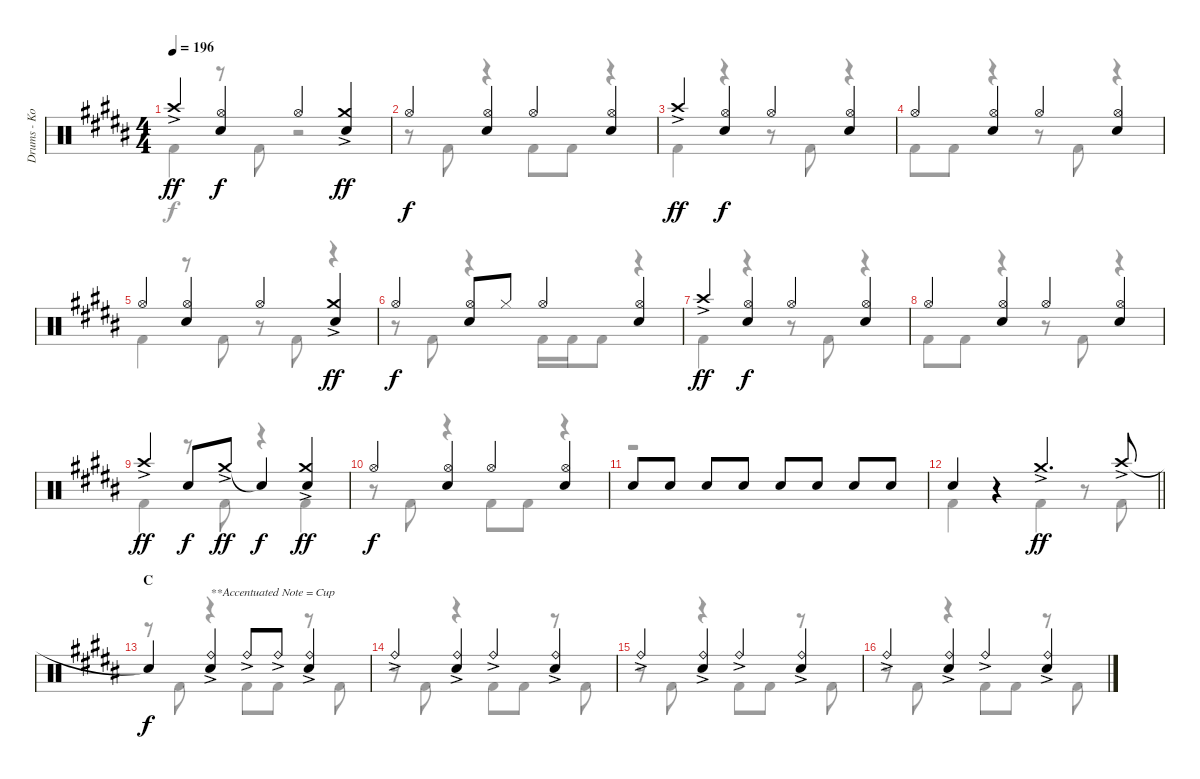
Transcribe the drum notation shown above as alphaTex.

\track ("Drums - Koji Hasegawa" "Drums - Ko") {instrument percussion}
\staff {score}
\articulation defaults
\voice
\ts (4 4)
\tempo 196
\clef neutral
\ks b "Crash high (hit)"{ac}.4{dy ff}
("Hi-Hat (open)" "Snare (hit) 2").4{dy f} "Hi-Hat (open)".4 ("Crash medium (hit)"{ac} "Snare (hit) 2").4{dy ff} |
"Hi-Hat (open)".4{dy f} ("Hi-Hat (open)" "Snare (hit) 2").4 "Hi-Hat (open)".4 ("Hi-Hat (open)" "Snare (hit) 2").4 |
"Crash high (hit)"{ac}.4{dy ff} ("Hi-Hat (open)" "Snare (hit) 2").4{dy f} "Hi-Hat (open)".4 ("Hi-Hat (open)" "Snare (hit) 2").4 |
"Hi-Hat (open)".4 ("Hi-Hat (open)" "Snare (hit) 2").4 "Hi-Hat (open)".4 ("Hi-Hat (open)" "Snare (hit) 2").4 |
"Hi-Hat (open)".4 ("Hi-Hat (open)" "Snare (hit) 2").4 "Hi-Hat (open)".4 ("Crash medium (hit)"{ac} "Snare (hit) 2").4{dy ff} |
"Hi-Hat (open)".4{dy f} ("Hi-Hat (open)" "Snare (hit) 2").8 "Hi-Hat (closed)".8 "Hi-Hat (open)".4 ("Hi-Hat (open)" "Snare (hit) 2").4 |
"Crash high (hit)"{ac}.4{dy ff} ("Hi-Hat (open)" "Snare (hit) 2").4{dy f} "Hi-Hat (open)".4 ("Hi-Hat (open)" "Snare (hit) 2").4 |
"Hi-Hat (open)".4 ("Hi-Hat (open)" "Snare (hit) 2").4 "Hi-Hat (open)".4 ("Hi-Hat (open)" "Snare (hit) 2").4 |
"Crash high (hit)"{ac}.4{dy ff} "Snare (hit) 2".8{dy f} "Crash medium (hit)"{ac}.8{dy ff} "Snare (hit)"{t}.4{dy f} ("Crash medium (hit)"{ac} "Snare (hit) 2").4{dy ff} |
"Hi-Hat (open)".4{dy f} ("Hi-Hat (open)" "Snare (hit) 2").4 "Hi-Hat (open)".4 ("Hi-Hat (open)" "Snare (hit) 2").4 |
"Snare (hit) 2".8 "Snare (hit) 2".8 "Snare (hit) 2".8 "Snare (hit) 2".8 "Snare (hit) 2".8 "Snare (hit) 2".8 "Snare (hit) 2".8 "Snare (hit) 2".8 |
\barLineRight lightlight "Snare (hit) 2".4
r.4 "Crash medium (hit)"{ac}.4{d dy ff} "Crash high (hit)"{ac}.8 |
\section ("" "C")
"Snare (hit)"{t}.4{dy f} ("Ride (bell)"{ac} "Snare (hit) 2").4{txt "**Accentuated Note = Cup"} "Ride (bell)"{ac}.8 "Ride (bell)"{ac}.8 ("Ride (bell)"{ac} "Snare (hit) 2").4 |
"Ride (bell)"{ac}.4 ("Ride (bell)"{ac} "Snare (hit) 2").4 "Ride (bell)"{ac}.4 ("Ride (bell)"{ac} "Snare (hit) 2").4 |
"Ride (bell)"{ac}.4 ("Ride (bell)"{ac} "Snare (hit) 2").4 "Ride (bell)"{ac}.4 ("Ride (bell)"{ac} "Snare (hit) 2").4 |
"Ride (bell)"{ac}.4 ("Ride (bell)"{ac} "Snare (hit) 2").4 "Ride (bell)"{ac}.4 ("Ride (bell)"{ac} "Snare (hit) 2").4
\voice
\clef neutral
\ottava regular
\simile none
\ks b "Kick (hit) 2".4{dy f}
r.8 "Kick (hit) 2".8 r.2 |
r.8 "Kick (hit) 2".8 r.4 "Kick (hit) 2".8 "Kick (hit) 2".8 r.4 |
"Kick (hit) 2".4 r.4 r.8 "Kick (hit) 2".8 r.4 |
"Kick (hit) 2".8 "Kick (hit) 2".8 r.4 r.8 "Kick (hit) 2".8 r.4 |
"Kick (hit) 2".4 r.8 "Kick (hit) 2".8 r.8 "Kick (hit) 2".8 r.4 |
r.8 "Kick (hit) 2".8 r.4 "Kick (hit) 2".16 "Kick (hit) 2".16 "Kick (hit) 2".8 r.4 |
"Kick (hit) 2".4 r.4 r.8 "Kick (hit) 2".8 r.4 |
"Kick (hit) 2".8 "Kick (hit) 2".8 r.4 r.8 "Kick (hit) 2".8 r.4 |
"Kick (hit) 2".4 r.8 "Kick (hit) 2".8 r.4 "Kick (hit) 2".4 |
r.8 "Kick (hit) 2".8 r.4 "Kick (hit) 2".8 "Kick (hit) 2".8 r.4 |
r.1 |
\barLineRight lightlight "Kick (hit) 2".4
r.4 "Kick (hit) 2".4 r.8 "Kick (hit) 2".8 |
r.8 "Kick (hit) 2".8 r.4 "Kick (hit) 2".8 "Kick (hit) 2".8 r.8 "Kick (hit) 2".8 |
r.8 "Kick (hit) 2".8 r.4 "Kick (hit) 2".8 "Kick (hit) 2".8 r.8 "Kick (hit) 2".8 |
r.8 "Kick (hit) 2".8 r.4 "Kick (hit) 2".8 "Kick (hit) 2".8 r.8 "Kick (hit) 2".8 |
r.8 "Kick (hit) 2".8 r.4 "Kick (hit) 2".8 "Kick (hit) 2".8 r.8 "Kick (hit) 2".8
